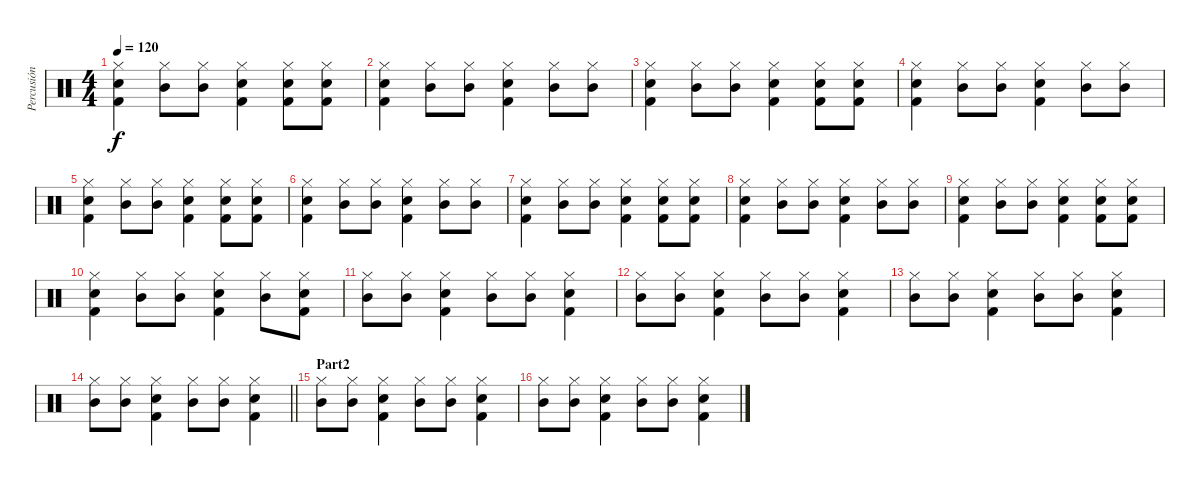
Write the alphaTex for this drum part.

\track ("Percusión" "Percusión") {instrument percussion}
\staff {score}
\articulation defaults
\ts (4 4)
\tempo 120
\clef neutral
\ks c
("Hi-Hat (closed)" "Snare (hit) 2" "Kick (hit) 2").4{dy f} ("Hi-Hat (closed)" "Mid Tom (hit)").8 ("Hi-Hat (closed)" "Mid Tom (hit)").8 ("Hi-Hat (closed)" "Snare (hit) 2" "Kick (hit) 2").4 ("Hi-Hat (closed)" "Snare (hit) 2" "Kick (hit) 2").8 ("Hi-Hat (closed)" "Snare (hit) 2" "Kick (hit) 2").8 |
("Hi-Hat (closed)" "Snare (hit) 2" "Kick (hit) 2").4 ("Hi-Hat (closed)" "Mid Tom (hit)").8 ("Hi-Hat (closed)" "Mid Tom (hit)").8 ("Hi-Hat (closed)" "Snare (hit) 2" "Kick (hit) 2").4 ("Hi-Hat (closed)" "Mid Tom (hit)").8 ("Hi-Hat (closed)" "Mid Tom (hit)").8 |
("Hi-Hat (closed)" "Snare (hit) 2" "Kick (hit) 2").4 ("Hi-Hat (closed)" "Mid Tom (hit)").8 ("Hi-Hat (closed)" "Mid Tom (hit)").8 ("Hi-Hat (closed)" "Snare (hit) 2" "Kick (hit) 2").4 ("Hi-Hat (closed)" "Snare (hit) 2" "Kick (hit) 2").8 ("Hi-Hat (closed)" "Snare (hit) 2" "Kick (hit) 2").8 |
("Hi-Hat (closed)" "Snare (hit) 2" "Kick (hit) 2").4 ("Hi-Hat (closed)" "Mid Tom (hit)").8 ("Hi-Hat (closed)" "Mid Tom (hit)").8 ("Hi-Hat (closed)" "Snare (hit) 2" "Kick (hit) 2").4 ("Hi-Hat (closed)" "Mid Tom (hit)").8 ("Hi-Hat (closed)" "Mid Tom (hit)").8 |
("Hi-Hat (closed)" "Snare (hit) 2" "Kick (hit) 2").4 ("Hi-Hat (closed)" "Mid Tom (hit)").8 ("Hi-Hat (closed)" "Mid Tom (hit)").8 ("Hi-Hat (closed)" "Snare (hit) 2" "Kick (hit) 2").4 ("Hi-Hat (closed)" "Snare (hit) 2" "Kick (hit) 2").8 ("Hi-Hat (closed)" "Snare (hit) 2" "Kick (hit) 2").8 |
("Hi-Hat (closed)" "Snare (hit) 2" "Kick (hit) 2").4 ("Hi-Hat (closed)" "Mid Tom (hit)").8 ("Hi-Hat (closed)" "Mid Tom (hit)").8 ("Hi-Hat (closed)" "Snare (hit) 2" "Kick (hit) 2").4 ("Hi-Hat (closed)" "Mid Tom (hit)").8 ("Hi-Hat (closed)" "Mid Tom (hit)").8 |
("Hi-Hat (closed)" "Snare (hit) 2" "Kick (hit) 2").4 ("Hi-Hat (closed)" "Mid Tom (hit)").8 ("Hi-Hat (closed)" "Mid Tom (hit)").8 ("Hi-Hat (closed)" "Snare (hit) 2" "Kick (hit) 2").4 ("Hi-Hat (closed)" "Snare (hit) 2" "Kick (hit) 2").8 ("Hi-Hat (closed)" "Snare (hit) 2" "Kick (hit) 2").8 |
("Hi-Hat (closed)" "Snare (hit) 2" "Kick (hit) 2").4 ("Hi-Hat (closed)" "Mid Tom (hit)").8 ("Hi-Hat (closed)" "Mid Tom (hit)").8 ("Hi-Hat (closed)" "Snare (hit) 2" "Kick (hit) 2").4 ("Hi-Hat (closed)" "Mid Tom (hit)").8 ("Hi-Hat (closed)" "Mid Tom (hit)").8 |
("Hi-Hat (closed)" "Snare (hit) 2" "Kick (hit) 2").4 ("Hi-Hat (closed)" "Mid Tom (hit)").8 ("Hi-Hat (closed)" "Mid Tom (hit)").8 ("Hi-Hat (closed)" "Snare (hit) 2" "Kick (hit) 2").4 ("Hi-Hat (closed)" "Snare (hit) 2" "Kick (hit) 2").8 ("Hi-Hat (closed)" "Snare (hit) 2" "Kick (hit) 2").8 |
("Hi-Hat (closed)" "Snare (hit) 2" "Kick (hit) 2").4 ("Hi-Hat (closed)" "Mid Tom (hit)").8 ("Hi-Hat (closed)" "Mid Tom (hit)").8 ("Hi-Hat (closed)" "Snare (hit) 2" "Kick (hit) 2").4 ("Hi-Hat (closed)" "Mid Tom (hit)").8 ("Hi-Hat (closed)" "Snare (hit) 2" "Kick (hit) 2").8 |
("Hi-Hat (closed)" "Mid Tom (hit)").8 ("Hi-Hat (closed)" "Mid Tom (hit)").8 ("Hi-Hat (closed)" "Snare (hit) 2" "Kick (hit) 2").4 ("Hi-Hat (closed)" "Mid Tom (hit)").8 ("Hi-Hat (closed)" "Mid Tom (hit)").8 ("Hi-Hat (closed)" "Snare (hit) 2" "Kick (hit) 2").4 |
("Hi-Hat (closed)" "Mid Tom (hit)").8 ("Hi-Hat (closed)" "Mid Tom (hit)").8 ("Hi-Hat (closed)" "Snare (hit) 2" "Kick (hit) 2").4 ("Hi-Hat (closed)" "Mid Tom (hit)").8 ("Hi-Hat (closed)" "Mid Tom (hit)").8 ("Hi-Hat (closed)" "Snare (hit) 2" "Kick (hit) 2").4 |
("Hi-Hat (closed)" "Mid Tom (hit)").8 ("Hi-Hat (closed)" "Mid Tom (hit)").8 ("Hi-Hat (closed)" "Snare (hit) 2" "Kick (hit) 2").4 ("Hi-Hat (closed)" "Mid Tom (hit)").8 ("Hi-Hat (closed)" "Mid Tom (hit)").8 ("Hi-Hat (closed)" "Snare (hit) 2" "Kick (hit) 2").4 |
\barLineRight lightlight
("Hi-Hat (closed)" "Mid Tom (hit)").8 ("Hi-Hat (closed)" "Mid Tom (hit)").8 ("Hi-Hat (closed)" "Snare (hit) 2" "Kick (hit) 2").4 ("Hi-Hat (closed)" "Mid Tom (hit)").8 ("Hi-Hat (closed)" "Mid Tom (hit)").8 ("Hi-Hat (closed)" "Snare (hit) 2" "Kick (hit) 2").4 |
\section ("" "Part2")
("Hi-Hat (closed)" "Mid Tom (hit)").8 ("Hi-Hat (closed)" "Mid Tom (hit)").8 ("Hi-Hat (closed)" "Snare (hit) 2" "Kick (hit) 2").4 ("Hi-Hat (closed)" "Mid Tom (hit)").8 ("Hi-Hat (closed)" "Mid Tom (hit)").8 ("Hi-Hat (closed)" "Snare (hit) 2" "Kick (hit) 2").4 |
("Hi-Hat (closed)" "Mid Tom (hit)").8 ("Hi-Hat (closed)" "Mid Tom (hit)").8 ("Hi-Hat (closed)" "Snare (hit) 2" "Kick (hit) 2").4 ("Hi-Hat (closed)" "Mid Tom (hit)").8 ("Hi-Hat (closed)" "Mid Tom (hit)").8 ("Hi-Hat (closed)" "Snare (hit) 2" "Kick (hit) 2").4
